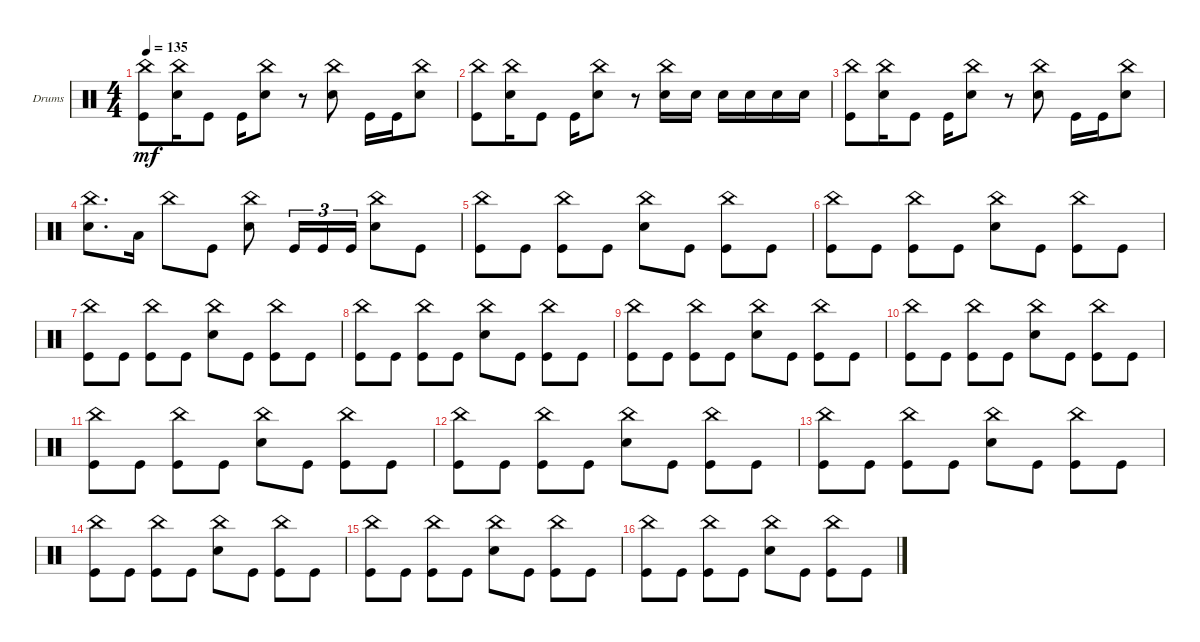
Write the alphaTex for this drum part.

\defaultSystemsLayout 4
\bracketExtendMode groupsimilarinstruments
\firstSystemTrackNameOrientation horizontal
\otherSystemsTrackNameOrientation horizontal
\track ("Drumkit" "Drums") {instrument percussion}
\staff {score}
\articulation defaults
\ts (4 4)
\tempo 135
\clef neutral
\ks c
("Kick (hit)" "China (hit)").8{dy mf} ("Snare (hit) 2" "China (hit)").16 "Kick (hit)".8 "Kick (hit)".16 ("Snare (hit) 2" "China (hit)").8 r.8 ("Snare (hit) 2" "China (hit)").8 "Kick (hit)".16 "Kick (hit)".16 ("Snare (hit) 2" "China (hit)").8 |
("Kick (hit)" "China (hit)").8 ("Snare (hit) 2" "China (hit)").16 "Kick (hit)".8 "Kick (hit)".16 ("Snare (hit) 2" "China (hit)").8 r.8 ("Snare (hit) 2" "China (hit)").16 "Snare (hit) 2".16 "Snare (hit) 2".16 "Snare (hit) 2".16 "Snare (hit) 2".16 "Snare (hit) 2".16 |
("Kick (hit)" "China (hit)").8 ("Snare (hit) 2" "China (hit)").16 "Kick (hit)".8 "Kick (hit)".16 ("Snare (hit) 2" "China (hit)").8 r.8 ("Snare (hit) 2" "China (hit)").8 "Kick (hit)".16 "Kick (hit)".16 ("Snare (hit) 2" "China (hit)").8 |
("China (hit)" "Snare (hit) 2").8{d} "Low Tom (hit)".16 "China (hit)".8 "Kick (hit)".8 ("China (hit)" "Snare (hit) 2").8 "Kick (hit)".16{tu (3 2)} "Kick (hit)".16{tu (3 2)} "Kick (hit)".16{tu (3 2)} ("Snare (hit) 2" "China (hit)").8 "Kick (hit)".8 |
("Kick (hit)" "China (hit)").8 "Kick (hit)".8 ("Kick (hit)" "China (hit)").8 "Kick (hit)".8 ("China (hit)" "Snare (hit) 2").8 "Kick (hit)".8 ("Kick (hit)" "China (hit)").8 "Kick (hit)".8 |
("Kick (hit)" "China (hit)").8 "Kick (hit)".8 ("Kick (hit)" "China (hit)").8 "Kick (hit)".8 ("China (hit)" "Snare (hit) 2").8 "Kick (hit)".8 ("Kick (hit)" "China (hit)").8 "Kick (hit)".8 |
("Kick (hit)" "China (hit)").8 "Kick (hit)".8 ("Kick (hit)" "China (hit)").8 "Kick (hit)".8 ("China (hit)" "Snare (hit) 2").8 "Kick (hit)".8 ("Kick (hit)" "China (hit)").8 "Kick (hit)".8 |
("Kick (hit)" "China (hit)").8 "Kick (hit)".8 ("Kick (hit)" "China (hit)").8 "Kick (hit)".8 ("China (hit)" "Snare (hit) 2").8 "Kick (hit)".8 ("Kick (hit)" "China (hit)").8 "Kick (hit)".8 |
("Kick (hit)" "China (hit)").8 "Kick (hit)".8 ("Kick (hit)" "China (hit)").8 "Kick (hit)".8 ("China (hit)" "Snare (hit) 2").8 "Kick (hit)".8 ("Kick (hit)" "China (hit)").8 "Kick (hit)".8 |
("Kick (hit)" "China (hit)").8 "Kick (hit)".8 ("Kick (hit)" "China (hit)").8 "Kick (hit)".8 ("China (hit)" "Snare (hit) 2").8 "Kick (hit)".8 ("Kick (hit)" "China (hit)").8 "Kick (hit)".8 |
("Kick (hit)" "China (hit)").8 "Kick (hit)".8 ("Kick (hit)" "China (hit)").8 "Kick (hit)".8 ("China (hit)" "Snare (hit) 2").8 "Kick (hit)".8 ("Kick (hit)" "China (hit)").8 "Kick (hit)".8 |
("Kick (hit)" "China (hit)").8 "Kick (hit)".8 ("Kick (hit)" "China (hit)").8 "Kick (hit)".8 ("China (hit)" "Snare (hit) 2").8 "Kick (hit)".8 ("Kick (hit)" "China (hit)").8 "Kick (hit)".8 |
("Kick (hit)" "China (hit)").8 "Kick (hit)".8 ("Kick (hit)" "China (hit)").8 "Kick (hit)".8 ("China (hit)" "Snare (hit) 2").8 "Kick (hit)".8 ("Kick (hit)" "China (hit)").8 "Kick (hit)".8 |
("Kick (hit)" "China (hit)").8 "Kick (hit)".8 ("Kick (hit)" "China (hit)").8 "Kick (hit)".8 ("China (hit)" "Snare (hit) 2").8 "Kick (hit)".8 ("Kick (hit)" "China (hit)").8 "Kick (hit)".8 |
("Kick (hit)" "China (hit)").8 "Kick (hit)".8 ("Kick (hit)" "China (hit)").8 "Kick (hit)".8 ("China (hit)" "Snare (hit) 2").8 "Kick (hit)".8 ("Kick (hit)" "China (hit)").8 "Kick (hit)".8 |
("Kick (hit)" "China (hit)").8 "Kick (hit)".8 ("Kick (hit)" "China (hit)").8 "Kick (hit)".8 ("China (hit)" "Snare (hit) 2").8 "Kick (hit)".8 ("Kick (hit)" "China (hit)").8 "Kick (hit)".8
